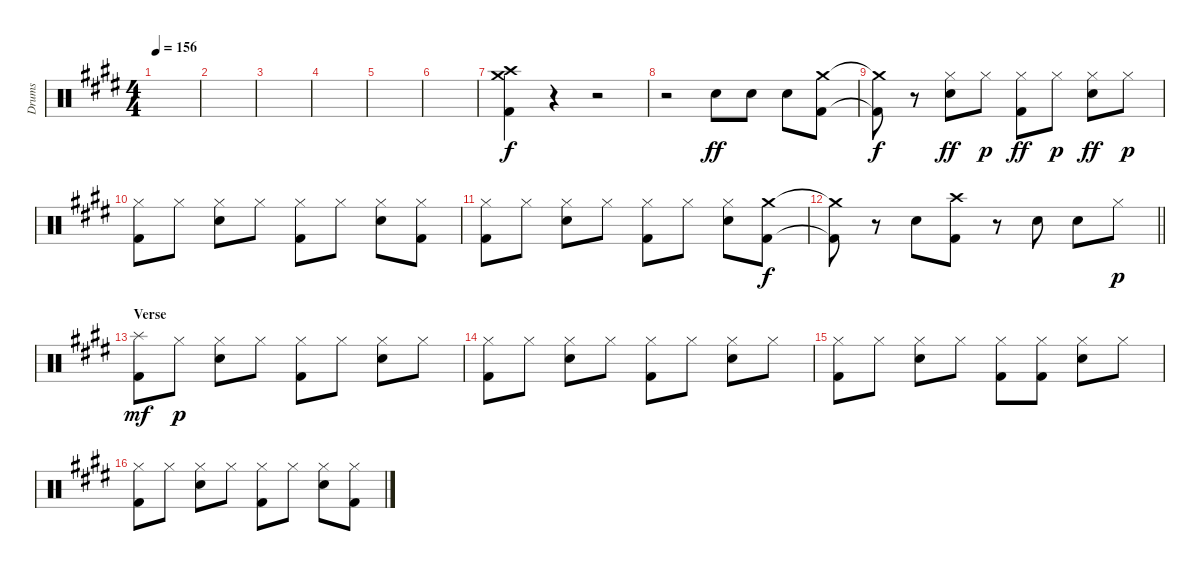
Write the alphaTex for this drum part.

\track ("Drums" "Drums") {instrument percussion}
\staff {score}
\articulation defaults
\ts (4 4)
\tempo 156
\clef neutral
\ks e
|
\ks c#minor
|
|
|
|
\ks e
|
\ks c#minor
("Crash high (hit)" "Crash medium (hit)" "Kick (hit) 2").4 r.4 r.2 |
r.2 "Electric Snare (hit)".8{dy ff} "Electric Snare (hit)".8 "Electric Snare (hit)".8 ("Crash medium (hit)" "Kick (hit) 2").8 |
\ks e
("Crash medium (hit)"{t} "Kick (hit) 2"{t}).8{dy f} r.8 ("Hi-Hat (closed)" "Electric Snare (hit)").8{dy ff} "Hi-Hat (closed)".8{dy p} ("Hi-Hat (closed)" "Kick (hit) 2").8{dy ff} "Hi-Hat (closed)".8{dy p} ("Hi-Hat (closed)" "Electric Snare (hit)").8{dy ff} "Hi-Hat (closed)".8{dy p} |
\ks c#minor
("Hi-Hat (closed)" "Kick (hit) 2").8 "Hi-Hat (closed)".8 ("Hi-Hat (closed)" "Electric Snare (hit)").8 "Hi-Hat (closed)".8 ("Hi-Hat (closed)" "Kick (hit) 2").8 "Hi-Hat (closed)".8 ("Hi-Hat (closed)" "Electric Snare (hit)").8 ("Hi-Hat (closed)" "Kick (hit) 2").8 |
("Hi-Hat (closed)" "Kick (hit) 2").8 "Hi-Hat (closed)".8 ("Hi-Hat (closed)" "Electric Snare (hit)").8 "Hi-Hat (closed)".8 ("Hi-Hat (closed)" "Kick (hit) 2").8 "Hi-Hat (closed)".8 ("Hi-Hat (closed)" "Electric Snare (hit)").8 ("Crash medium (hit)" "Kick (hit) 2").8{dy f} |
\barLineRight lightlight
\ks e
("Crash medium (hit)"{t} "Kick (hit) 2"{t}).8 r.8 "Electric Snare (hit)".8 ("Crash high (hit)" "Kick (hit) 2").8 r.8 "Electric Snare (hit)".8 "Electric Snare (hit)".8 "Hi-Hat (closed)".8{dy p} |
\section ("" "Verse")
("Splash (hit)" "Kick (hit) 2").8{dy mf} "Hi-Hat (closed)".8{dy p} ("Hi-Hat (closed)" "Electric Snare (hit)").8 "Hi-Hat (closed)".8 ("Hi-Hat (closed)" "Kick (hit) 2").8 "Hi-Hat (closed)".8 ("Hi-Hat (closed)" "Electric Snare (hit)").8 "Hi-Hat (closed)".8 |
\ks c#minor
("Hi-Hat (closed)" "Kick (hit) 2").8 "Hi-Hat (closed)".8 ("Hi-Hat (closed)" "Electric Snare (hit)").8 "Hi-Hat (closed)".8 ("Hi-Hat (closed)" "Kick (hit) 2").8 "Hi-Hat (closed)".8 ("Hi-Hat (closed)" "Electric Snare (hit)").8 "Hi-Hat (closed)".8 |
("Hi-Hat (closed)" "Kick (hit) 2").8 "Hi-Hat (closed)".8 ("Hi-Hat (closed)" "Electric Snare (hit)").8 "Hi-Hat (closed)".8 ("Hi-Hat (closed)" "Kick (hit) 2").8 ("Hi-Hat (closed)" "Kick (hit) 2").8 ("Hi-Hat (closed)" "Electric Snare (hit)").8 "Hi-Hat (closed)".8 |
("Hi-Hat (closed)" "Kick (hit) 2").8 "Hi-Hat (closed)".8 ("Hi-Hat (closed)" "Electric Snare (hit)").8 "Hi-Hat (closed)".8 ("Hi-Hat (closed)" "Kick (hit) 2").8 "Hi-Hat (closed)".8 ("Hi-Hat (closed)" "Electric Snare (hit)").8 ("Hi-Hat (closed)" "Kick (hit) 2").8
